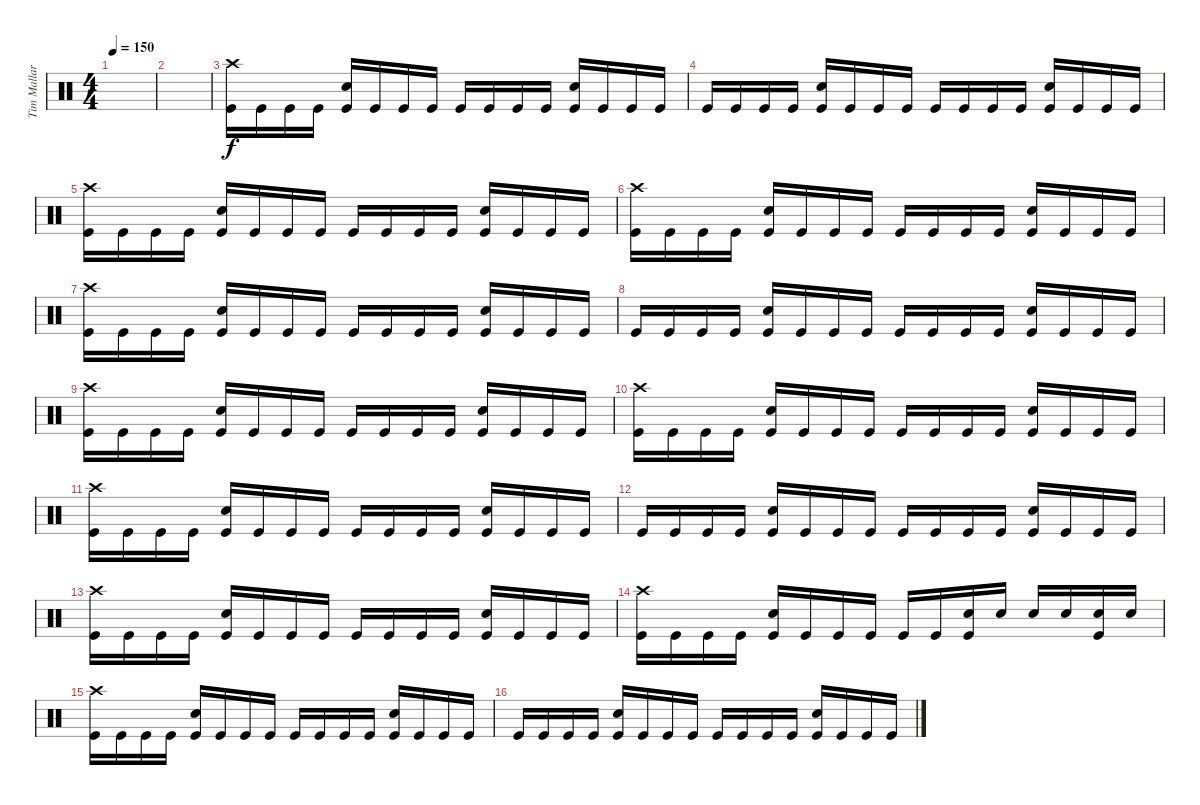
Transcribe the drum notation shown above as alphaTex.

\track ("Tim Mallare-Drums" "Tim Mallar") {instrument percussion}
\staff {score}
\articulation defaults
\ts (4 4)
\tempo 150
\clef neutral
\ks c
|
|
("Crash high (hit)" "Kick (hit)").16 "Kick (hit)".16 "Kick (hit)".16 "Kick (hit)".16 ("Electric Snare (hit)" "Kick (hit)").16 "Kick (hit)".16 "Kick (hit)".16 "Kick (hit)".16 "Kick (hit)".16 "Kick (hit)".16 "Kick (hit)".16 "Kick (hit)".16 ("Electric Snare (hit)" "Kick (hit)").16 "Kick (hit)".16 "Kick (hit)".16 "Kick (hit)".16 |
"Kick (hit)".16 "Kick (hit)".16 "Kick (hit)".16 "Kick (hit)".16 ("Electric Snare (hit)" "Kick (hit)").16 "Kick (hit)".16 "Kick (hit)".16 "Kick (hit)".16 "Kick (hit)".16 "Kick (hit)".16 "Kick (hit)".16 "Kick (hit)".16 ("Electric Snare (hit)" "Kick (hit)").16 "Kick (hit)".16 "Kick (hit)".16 "Kick (hit)".16 |
("Crash high (hit)" "Kick (hit)").16 "Kick (hit)".16 "Kick (hit)".16 "Kick (hit)".16 ("Electric Snare (hit)" "Kick (hit)").16 "Kick (hit)".16 "Kick (hit)".16 "Kick (hit)".16 "Kick (hit)".16 "Kick (hit)".16 "Kick (hit)".16 "Kick (hit)".16 ("Electric Snare (hit)" "Kick (hit)").16 "Kick (hit)".16 "Kick (hit)".16 "Kick (hit)".16 |
("Crash high (hit)" "Kick (hit)").16 "Kick (hit)".16 "Kick (hit)".16 "Kick (hit)".16 ("Electric Snare (hit)" "Kick (hit)").16 "Kick (hit)".16 "Kick (hit)".16 "Kick (hit)".16 "Kick (hit)".16 "Kick (hit)".16 "Kick (hit)".16 "Kick (hit)".16 ("Electric Snare (hit)" "Kick (hit)").16 "Kick (hit)".16 "Kick (hit)".16 "Kick (hit)".16 |
("Crash high (hit)" "Kick (hit)").16 "Kick (hit)".16 "Kick (hit)".16 "Kick (hit)".16 ("Electric Snare (hit)" "Kick (hit)").16 "Kick (hit)".16 "Kick (hit)".16 "Kick (hit)".16 "Kick (hit)".16 "Kick (hit)".16 "Kick (hit)".16 "Kick (hit)".16 ("Electric Snare (hit)" "Kick (hit)").16 "Kick (hit)".16 "Kick (hit)".16 "Kick (hit)".16 |
"Kick (hit)".16 "Kick (hit)".16 "Kick (hit)".16 "Kick (hit)".16 ("Electric Snare (hit)" "Kick (hit)").16 "Kick (hit)".16 "Kick (hit)".16 "Kick (hit)".16 "Kick (hit)".16 "Kick (hit)".16 "Kick (hit)".16 "Kick (hit)".16 ("Electric Snare (hit)" "Kick (hit)").16 "Kick (hit)".16 "Kick (hit)".16 "Kick (hit)".16 |
("Crash high (hit)" "Kick (hit)").16 "Kick (hit)".16 "Kick (hit)".16 "Kick (hit)".16 ("Electric Snare (hit)" "Kick (hit)").16 "Kick (hit)".16 "Kick (hit)".16 "Kick (hit)".16 "Kick (hit)".16 "Kick (hit)".16 "Kick (hit)".16 "Kick (hit)".16 ("Electric Snare (hit)" "Kick (hit)").16 "Kick (hit)".16 "Kick (hit)".16 "Kick (hit)".16 |
("Crash high (hit)" "Kick (hit)").16 "Kick (hit)".16 "Kick (hit)".16 "Kick (hit)".16 ("Electric Snare (hit)" "Kick (hit)").16 "Kick (hit)".16 "Kick (hit)".16 "Kick (hit)".16 "Kick (hit)".16 "Kick (hit)".16 "Kick (hit)".16 "Kick (hit)".16 ("Electric Snare (hit)" "Kick (hit)").16 "Kick (hit)".16 "Kick (hit)".16 "Kick (hit)".16 |
("Crash high (hit)" "Kick (hit)").16 "Kick (hit)".16 "Kick (hit)".16 "Kick (hit)".16 ("Electric Snare (hit)" "Kick (hit)").16 "Kick (hit)".16 "Kick (hit)".16 "Kick (hit)".16 "Kick (hit)".16 "Kick (hit)".16 "Kick (hit)".16 "Kick (hit)".16 ("Electric Snare (hit)" "Kick (hit)").16 "Kick (hit)".16 "Kick (hit)".16 "Kick (hit)".16 |
"Kick (hit)".16 "Kick (hit)".16 "Kick (hit)".16 "Kick (hit)".16 ("Electric Snare (hit)" "Kick (hit)").16 "Kick (hit)".16 "Kick (hit)".16 "Kick (hit)".16 "Kick (hit)".16 "Kick (hit)".16 "Kick (hit)".16 "Kick (hit)".16 ("Electric Snare (hit)" "Kick (hit)").16 "Kick (hit)".16 "Kick (hit)".16 "Kick (hit)".16 |
("Crash high (hit)" "Kick (hit)").16 "Kick (hit)".16 "Kick (hit)".16 "Kick (hit)".16 ("Electric Snare (hit)" "Kick (hit)").16 "Kick (hit)".16 "Kick (hit)".16 "Kick (hit)".16 "Kick (hit)".16 "Kick (hit)".16 "Kick (hit)".16 "Kick (hit)".16 ("Electric Snare (hit)" "Kick (hit)").16 "Kick (hit)".16 "Kick (hit)".16 "Kick (hit)".16 |
("Crash high (hit)" "Kick (hit)").16 "Kick (hit)".16 "Kick (hit)".16 "Kick (hit)".16 ("Electric Snare (hit)" "Kick (hit)").16 "Kick (hit)".16 "Kick (hit)".16 "Kick (hit)".16 "Kick (hit)".16 "Kick (hit)".16 ("Electric Snare (hit)" "Kick (hit)").16 "Electric Snare (hit)".16 "Electric Snare (hit)".16 "Electric Snare (hit)".16 ("Electric Snare (hit)" "Kick (hit)").16 "Electric Snare (hit)".16 |
("Crash high (hit)" "Kick (hit)").16 "Kick (hit)".16 "Kick (hit)".16 "Kick (hit)".16 ("Electric Snare (hit)" "Kick (hit)").16 "Kick (hit)".16 "Kick (hit)".16 "Kick (hit)".16 "Kick (hit)".16 "Kick (hit)".16 "Kick (hit)".16 "Kick (hit)".16 ("Electric Snare (hit)" "Kick (hit)").16 "Kick (hit)".16 "Kick (hit)".16 "Kick (hit)".16 |
"Kick (hit)".16 "Kick (hit)".16 "Kick (hit)".16 "Kick (hit)".16 ("Electric Snare (hit)" "Kick (hit)").16 "Kick (hit)".16 "Kick (hit)".16 "Kick (hit)".16 "Kick (hit)".16 "Kick (hit)".16 "Kick (hit)".16 "Kick (hit)".16 ("Electric Snare (hit)" "Kick (hit)").16 "Kick (hit)".16 "Kick (hit)".16 "Kick (hit)".16
